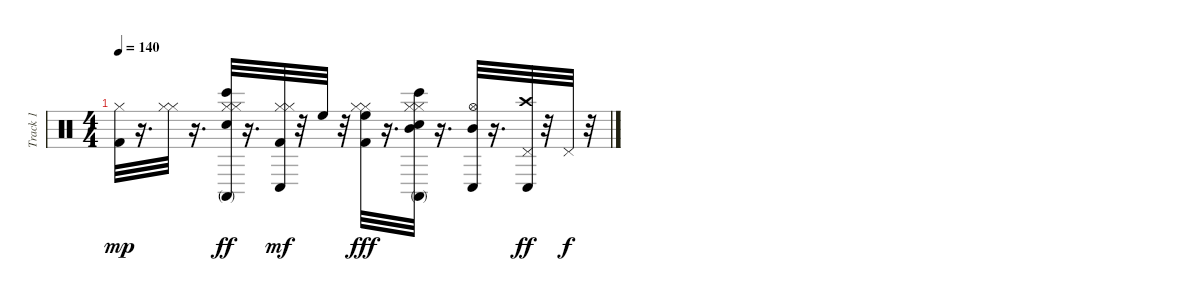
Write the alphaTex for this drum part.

\track ("Track 1" "Track 1") {instrument percussion}
\staff {score}
\articulation defaults
\ts (4 4)
\tempo 140
\clef neutral
\ks c
("Kick (hit) 2" "Hi-Hat (closed)").32{dy mp} r.16{d} ("Hi-Hat (closed)" "Hi-Hat (closed)").32 r.16{d} ("Electric Snare (hit)" "Hi-Hat (closed)" "Hi-Hat (closed)" "Conga high (mute)" "Bongo High (hit)").32{dy ff} r.16{d} ("Kick (hit) 2" "Hi-Hat (closed)" "Hi-Hat (closed)" "Conga low (hit)").32{dy mf} r.32 "High Floor Tom (hit)".32 r.32 ("Kick (hit) 2" "Hi-Hat (closed)" "Hi-Hat (closed)" "High Floor Tom (hit)").32{dy fff} r.16{d} ("Electric Snare (hit)" "Hi-Hat (closed)" "Hi-Hat (closed)" "Conga high (mute)" "Bongo High (hit)" "Mid Tom (hit)").32 r.16{d} ("Hi-Hat (open)" "Conga low (hit)" "Mid Tom (hit)").32 r.16{d} ("Pedal Hi-Hat (hit)" "Conga low (hit)" "Crash high (hit)").32{dy ff} r.32 "Pedal Hi-Hat (hit)".32{dy f} r.32
